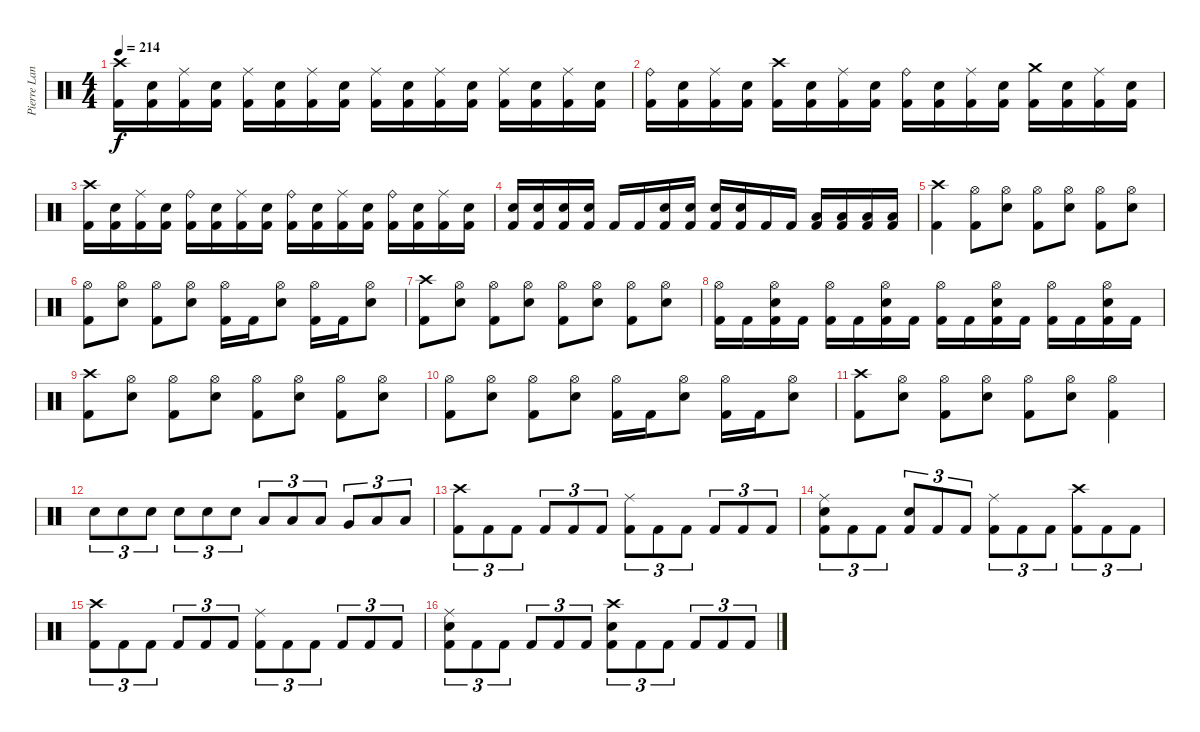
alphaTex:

\track ("Pierre Langlois (Drums)" "Pierre Lan") {instrument percussion}
\staff {score}
\articulation defaults
\ts (4 4)
\tempo 214
\clef neutral
\ks c
("Crash high (hit)" "Kick (hit) 2").16{dy f} ("Snare (hit) 2" "Kick (hit) 2").16 ("Ride (middle)" "Kick (hit) 2").16 ("Snare (hit) 2" "Kick (hit) 2").16 ("Ride (middle)" "Kick (hit) 2").16 ("Snare (hit) 2" "Kick (hit) 2").16 ("Ride (middle)" "Kick (hit) 2").16 ("Snare (hit) 2" "Kick (hit) 2").16 ("Ride (middle)" "Kick (hit) 2").16 ("Snare (hit) 2" "Kick (hit) 2").16 ("Ride (middle)" "Kick (hit) 2").16 ("Snare (hit) 2" "Kick (hit) 2").16 ("Ride (middle)" "Kick (hit) 2").16 ("Snare (hit) 2" "Kick (hit) 2").16 ("Ride (middle)" "Kick (hit) 2").16 ("Snare (hit) 2" "Kick (hit) 2").16 |
("Ride (bell)" "Kick (hit) 2").16 ("Snare (hit) 2" "Kick (hit) 2").16 ("Ride (middle)" "Kick (hit) 2").16 ("Snare (hit) 2" "Kick (hit) 2").16 ("Crash high (hit)" "Kick (hit) 2").16 ("Snare (hit) 2" "Kick (hit) 2").16 ("Ride (middle)" "Kick (hit) 2").16 ("Snare (hit) 2" "Kick (hit) 2").16 ("Ride (bell)" "Kick (hit) 2").16 ("Snare (hit) 2" "Kick (hit) 2").16 ("Ride (middle)" "Kick (hit) 2").16 ("Snare (hit) 2" "Kick (hit) 2").16 ("Crash medium (hit)" "Kick (hit) 2").16 ("Snare (hit) 2" "Kick (hit) 2").16 ("Ride (middle)" "Kick (hit) 2").16 ("Snare (hit) 2" "Kick (hit) 2").16 |
("Crash high (hit)" "Kick (hit) 2").16 ("Snare (hit) 2" "Kick (hit) 2").16 ("Ride (middle)" "Kick (hit) 2").16 ("Snare (hit) 2" "Kick (hit) 2").16 ("Ride (bell)" "Kick (hit) 2").16 ("Snare (hit) 2" "Kick (hit) 2").16 ("Ride (middle)" "Kick (hit) 2").16 ("Snare (hit) 2" "Kick (hit) 2").16 ("Ride (bell)" "Kick (hit) 2").16 ("Snare (hit) 2" "Kick (hit) 2").16 ("Ride (middle)" "Kick (hit) 2").16 ("Snare (hit) 2" "Kick (hit) 2").16 ("Ride (bell)" "Kick (hit) 2").16 ("Snare (hit) 2" "Kick (hit) 2").16 ("Ride (middle)" "Kick (hit) 2").16 ("Snare (hit) 2" "Kick (hit) 2").16 |
("Snare (hit) 2" "Kick (hit) 2").16 ("Snare (hit) 2" "Kick (hit) 2").16 ("Snare (hit) 2" "Kick (hit) 2").16 ("Snare (hit) 2" "Kick (hit) 2").16 "Kick (hit) 2".16 "Kick (hit) 2".16 ("Snare (hit) 2" "Kick (hit) 2").16 ("Snare (hit) 2" "Kick (hit) 2").16 ("Snare (hit) 2" "Kick (hit) 2").16 ("Snare (hit) 2" "Kick (hit) 2").16 "Kick (hit) 2".16 "Kick (hit) 2".16 ("Low Tom (hit)" "Kick (hit) 2").16 ("Low Tom (hit)" "Kick (hit) 2").16 ("Low Floor Tom (hit)" "Kick (hit) 2").16 ("Low Floor Tom (hit)" "Kick (hit) 2").16 |
("Crash high (hit)" "Kick (hit) 2").4 ("Hi-Hat (open)" "Kick (hit) 2").8 ("Hi-Hat (open)" "Snare (hit) 2").8 ("Hi-Hat (open)" "Kick (hit) 2").8 ("Hi-Hat (open)" "Snare (hit) 2").8 ("Hi-Hat (open)" "Kick (hit) 2").8 ("Hi-Hat (open)" "Snare (hit) 2").8 |
("Hi-Hat (open)" "Kick (hit) 2").8 ("Hi-Hat (open)" "Snare (hit) 2").8 ("Hi-Hat (open)" "Kick (hit) 2").8 ("Hi-Hat (open)" "Snare (hit) 2").8 ("Hi-Hat (open)" "Kick (hit) 2").16 "Kick (hit) 2".16 ("Hi-Hat (open)" "Snare (hit) 2").8 ("Hi-Hat (open)" "Kick (hit) 2").16 "Kick (hit) 2".16 ("Hi-Hat (open)" "Snare (hit) 2").8 |
("Crash high (hit)" "Kick (hit) 2").8 ("Hi-Hat (open)" "Snare (hit) 2").8 ("Hi-Hat (open)" "Kick (hit) 2").8 ("Hi-Hat (open)" "Snare (hit) 2").8 ("Hi-Hat (open)" "Kick (hit) 2").8 ("Hi-Hat (open)" "Snare (hit) 2").8 ("Hi-Hat (open)" "Kick (hit) 2").8 ("Hi-Hat (open)" "Snare (hit) 2").8 |
("Hi-Hat (open)" "Kick (hit) 2").16 "Kick (hit) 2".16 ("Hi-Hat (open)" "Snare (hit) 2" "Kick (hit) 2").16 "Kick (hit) 2".16 ("Hi-Hat (open)" "Kick (hit) 2").16 "Kick (hit) 2".16 ("Hi-Hat (open)" "Snare (hit) 2" "Kick (hit) 2").16 "Kick (hit) 2".16 ("Hi-Hat (open)" "Kick (hit) 2").16 "Kick (hit) 2".16 ("Hi-Hat (open)" "Snare (hit) 2" "Kick (hit) 2").16 "Kick (hit) 2".16 ("Hi-Hat (open)" "Kick (hit) 2").16 "Kick (hit) 2".16 ("Hi-Hat (open)" "Snare (hit) 2" "Kick (hit) 2").16 "Kick (hit) 2".16 |
("Crash high (hit)" "Kick (hit) 2").8 ("Hi-Hat (open)" "Snare (hit) 2").8 ("Hi-Hat (open)" "Kick (hit) 2").8 ("Hi-Hat (open)" "Snare (hit) 2").8 ("Hi-Hat (open)" "Kick (hit) 2").8 ("Hi-Hat (open)" "Snare (hit) 2").8 ("Hi-Hat (open)" "Kick (hit) 2").8 ("Hi-Hat (open)" "Snare (hit) 2").8 |
("Hi-Hat (open)" "Kick (hit) 2").8 ("Hi-Hat (open)" "Snare (hit) 2").8 ("Hi-Hat (open)" "Kick (hit) 2").8 ("Hi-Hat (open)" "Snare (hit) 2").8 ("Hi-Hat (open)" "Kick (hit) 2").16 "Kick (hit) 2".16 ("Hi-Hat (open)" "Snare (hit) 2").8 ("Hi-Hat (open)" "Kick (hit) 2").16 "Kick (hit) 2".16 ("Hi-Hat (open)" "Snare (hit) 2").8 |
("Crash high (hit)" "Kick (hit) 2").8 ("Hi-Hat (open)" "Snare (hit) 2").8 ("Hi-Hat (open)" "Kick (hit) 2").8 ("Hi-Hat (open)" "Snare (hit) 2").8 ("Hi-Hat (open)" "Kick (hit) 2").8 ("Hi-Hat (open)" "Snare (hit) 2").8 ("Hi-Hat (open)" "Kick (hit) 2").4 |
"Snare (hit) 2".8{tu (3 2)} "Snare (hit) 2".8{tu (3 2)} "Snare (hit) 2".8{tu (3 2)} "Snare (hit) 2".8{tu (3 2)} "Snare (hit) 2".8{tu (3 2)} "Snare (hit) 2".8{tu (3 2)} "Low Tom (hit)".8{tu (3 2)} "Low Tom (hit)".8{tu (3 2)} "Low Tom (hit)".8{tu (3 2)} "Very Low Tom (hit)".8{tu (3 2)} "Low Floor Tom (hit)".8{tu (3 2)} "Low Floor Tom (hit)".8{tu (3 2)} |
("Crash high (hit)" "Kick (hit) 2").8{tu (3 2)} "Kick (hit) 2".8{tu (3 2)} "Kick (hit) 2".8{tu (3 2)} "Kick (hit) 2".8{tu (3 2)} "Kick (hit) 2".8{tu (3 2)} "Kick (hit) 2".8{tu (3 2)} ("Ride (middle)" "Kick (hit) 2").8{tu (3 2)} "Kick (hit) 2".8{tu (3 2)} "Kick (hit) 2".8{tu (3 2)} "Kick (hit) 2".8{tu (3 2)} "Kick (hit) 2".8{tu (3 2)} "Kick (hit) 2".8{tu (3 2)} |
("Snare (hit) 2" "Ride (middle)" "Kick (hit) 2").8{tu (3 2)} "Kick (hit) 2".8{tu (3 2)} "Kick (hit) 2".8{tu (3 2)} ("Snare (hit) 2" "Kick (hit) 2").8{tu (3 2)} "Kick (hit) 2".8{tu (3 2)} "Kick (hit) 2".8{tu (3 2)} ("Ride (middle)" "Kick (hit) 2").8{tu (3 2)} "Kick (hit) 2".8{tu (3 2)} "Kick (hit) 2".8{tu (3 2)} ("Crash high (hit)" "Kick (hit) 2").8{tu (3 2)} "Kick (hit) 2".8{tu (3 2)} "Kick (hit) 2".8{tu (3 2)} |
("Crash high (hit)" "Kick (hit) 2").8{tu (3 2)} "Kick (hit) 2".8{tu (3 2)} "Kick (hit) 2".8{tu (3 2)} "Kick (hit) 2".8{tu (3 2)} "Kick (hit) 2".8{tu (3 2)} "Kick (hit) 2".8{tu (3 2)} ("Ride (middle)" "Kick (hit) 2").8{tu (3 2)} "Kick (hit) 2".8{tu (3 2)} "Kick (hit) 2".8{tu (3 2)} "Kick (hit) 2".8{tu (3 2)} "Kick (hit) 2".8{tu (3 2)} "Kick (hit) 2".8{tu (3 2)} |
("Snare (hit) 2" "Ride (middle)" "Kick (hit) 2").8{tu (3 2)} "Kick (hit) 2".8{tu (3 2)} "Kick (hit) 2".8{tu (3 2)} "Kick (hit) 2".8{tu (3 2)} "Kick (hit) 2".8{tu (3 2)} "Kick (hit) 2".8{tu (3 2)} ("Crash high (hit)" "Snare (hit) 2" "Kick (hit) 2").8{tu (3 2)} "Kick (hit) 2".8{tu (3 2)} "Kick (hit) 2".8{tu (3 2)} "Kick (hit) 2".8{tu (3 2)} "Kick (hit) 2".8{tu (3 2)} "Kick (hit) 2".8{tu (3 2)}
